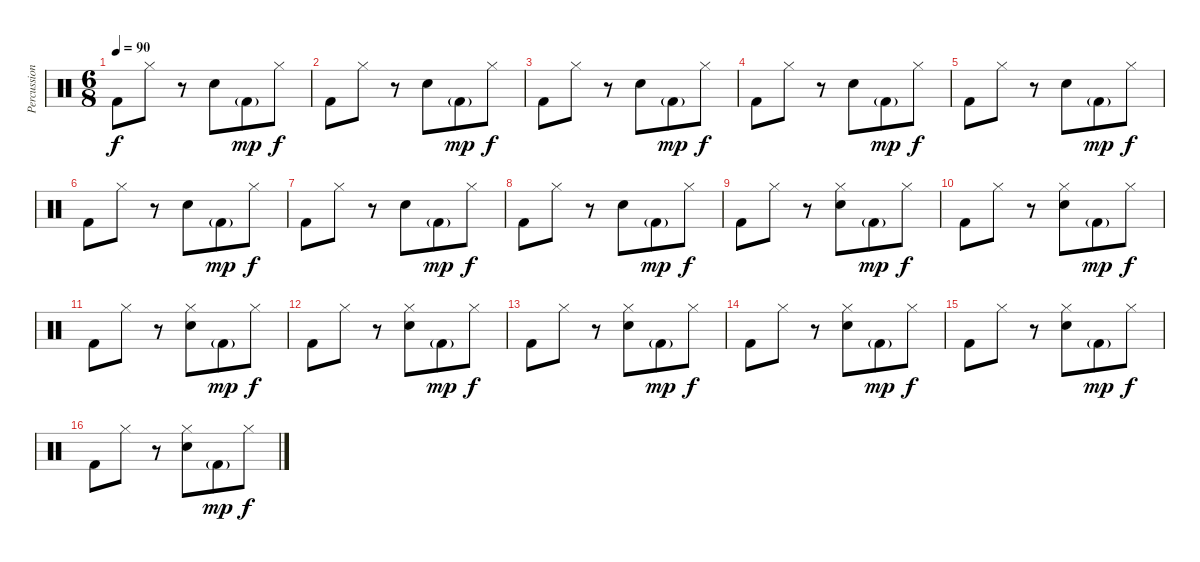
\track ("Percussion" "Percussion") {instrument percussion}
\staff {score}
\articulation defaults
\ts (6 8)
\tempo 90
\clef neutral
\ks c "Kick (hit) 2".8{dy f} "Hi-Hat (closed)".8
r.8 "Snare (hit) 2".8 "Kick (hit) 2"{g}.8{dy mp} "Hi-Hat (closed)".8{dy f} |
"Kick (hit) 2".8 "Hi-Hat (closed)".8 r.8 "Snare (hit) 2".8 "Kick (hit) 2"{g}.8{dy mp} "Hi-Hat (closed)".8{dy f} |
"Kick (hit) 2".8 "Hi-Hat (closed)".8 r.8 "Snare (hit) 2".8 "Kick (hit) 2"{g}.8{dy mp} "Hi-Hat (closed)".8{dy f} |
"Kick (hit) 2".8 "Hi-Hat (closed)".8 r.8 "Snare (hit) 2".8 "Kick (hit) 2"{g}.8{dy mp} "Hi-Hat (closed)".8{dy f} |
"Kick (hit) 2".8 "Hi-Hat (closed)".8 r.8 "Snare (hit) 2".8 "Kick (hit) 2"{g}.8{dy mp} "Hi-Hat (closed)".8{dy f} |
"Kick (hit) 2".8 "Hi-Hat (closed)".8 r.8 "Snare (hit) 2".8 "Kick (hit) 2"{g}.8{dy mp} "Hi-Hat (closed)".8{dy f} |
"Kick (hit) 2".8 "Hi-Hat (closed)".8 r.8 "Snare (hit) 2".8 "Kick (hit) 2"{g}.8{dy mp} "Hi-Hat (closed)".8{dy f} |
"Kick (hit) 2".8 "Hi-Hat (closed)".8 r.8 "Snare (hit) 2".8 "Kick (hit) 2"{g}.8{dy mp} "Hi-Hat (closed)".8{dy f} |
"Kick (hit) 2".8 "Hi-Hat (closed)".8 r.8 ("Hi-Hat (closed)" "Snare (hit) 2").8 "Kick (hit) 2"{g}.8{dy mp} "Hi-Hat (closed)".8{dy f} |
"Kick (hit) 2".8 "Hi-Hat (closed)".8 r.8 ("Hi-Hat (closed)" "Snare (hit) 2").8 "Kick (hit) 2"{g}.8{dy mp} "Hi-Hat (closed)".8{dy f} |
"Kick (hit) 2".8 "Hi-Hat (closed)".8 r.8 ("Hi-Hat (closed)" "Snare (hit) 2").8 "Kick (hit) 2"{g}.8{dy mp} "Hi-Hat (closed)".8{dy f} |
"Kick (hit) 2".8 "Hi-Hat (closed)".8 r.8 ("Hi-Hat (closed)" "Snare (hit) 2").8 "Kick (hit) 2"{g}.8{dy mp} "Hi-Hat (closed)".8{dy f} |
"Kick (hit) 2".8 "Hi-Hat (closed)".8 r.8 ("Hi-Hat (closed)" "Snare (hit) 2").8 "Kick (hit) 2"{g}.8{dy mp} "Hi-Hat (closed)".8{dy f} |
"Kick (hit) 2".8 "Hi-Hat (closed)".8 r.8 ("Hi-Hat (closed)" "Snare (hit) 2").8 "Kick (hit) 2"{g}.8{dy mp} "Hi-Hat (closed)".8{dy f} |
"Kick (hit) 2".8 "Hi-Hat (closed)".8 r.8 ("Hi-Hat (closed)" "Snare (hit) 2").8 "Kick (hit) 2"{g}.8{dy mp} "Hi-Hat (closed)".8{dy f} |
"Kick (hit) 2".8 "Hi-Hat (closed)".8 r.8 ("Hi-Hat (closed)" "Snare (hit) 2").8 "Kick (hit) 2"{g}.8{dy mp} "Hi-Hat (closed)".8{dy f}
